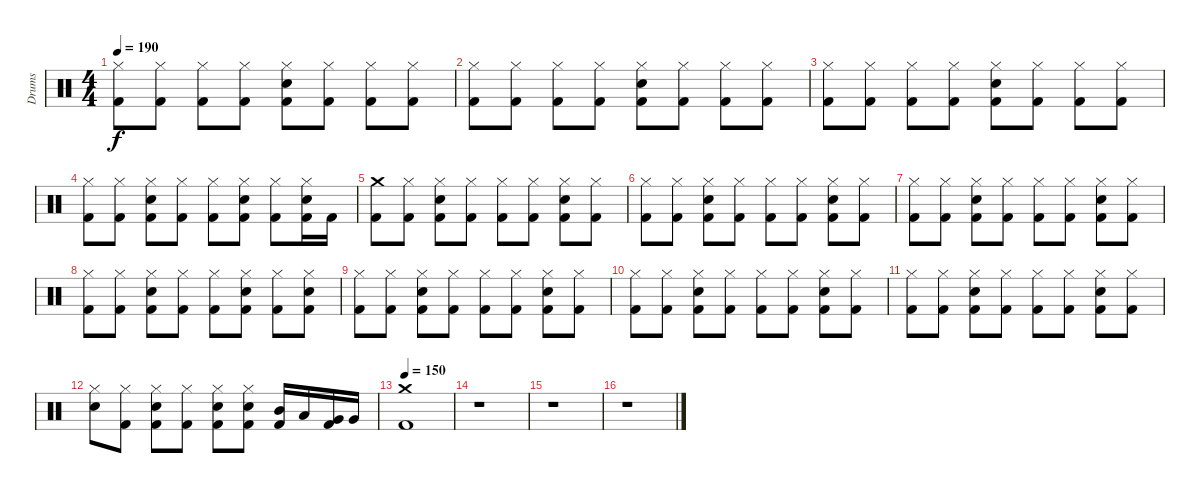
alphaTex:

\track ("Drums" "Drums") {instrument percussion}
\staff {score}
\articulation defaults
\ts (4 4)
\tempo 190
\clef neutral
\ks c
("Hi-Hat (closed)" "Kick (hit) 2").8{dy f} ("Hi-Hat (closed)" "Kick (hit) 2").8 ("Hi-Hat (closed)" "Kick (hit) 2").8 ("Hi-Hat (closed)" "Kick (hit) 2").8 ("Kick (hit) 2" "Hi-Hat (closed)" "Snare (hit) 2").8 ("Hi-Hat (closed)" "Kick (hit) 2").8 ("Hi-Hat (closed)" "Kick (hit) 2").8 ("Hi-Hat (closed)" "Kick (hit) 2").8 |
("Hi-Hat (closed)" "Kick (hit) 2").8 ("Hi-Hat (closed)" "Kick (hit) 2").8 ("Hi-Hat (closed)" "Kick (hit) 2").8 ("Hi-Hat (closed)" "Kick (hit) 2").8 ("Kick (hit) 2" "Hi-Hat (closed)" "Snare (hit) 2").8 ("Hi-Hat (closed)" "Kick (hit) 2").8 ("Hi-Hat (closed)" "Kick (hit) 2").8 ("Hi-Hat (closed)" "Kick (hit) 2").8 |
("Hi-Hat (closed)" "Kick (hit) 2").8 ("Hi-Hat (closed)" "Kick (hit) 2").8 ("Hi-Hat (closed)" "Kick (hit) 2").8 ("Hi-Hat (closed)" "Kick (hit) 2").8 ("Kick (hit) 2" "Hi-Hat (closed)" "Snare (hit) 2").8 ("Hi-Hat (closed)" "Kick (hit) 2").8 ("Hi-Hat (closed)" "Kick (hit) 2").8 ("Hi-Hat (closed)" "Kick (hit) 2").8 |
("Hi-Hat (closed)" "Kick (hit) 2").8 ("Hi-Hat (closed)" "Kick (hit) 2").8 ("Kick (hit) 2" "Hi-Hat (closed)" "Snare (hit) 2").8 ("Hi-Hat (closed)" "Kick (hit) 2").8 ("Hi-Hat (closed)" "Kick (hit) 2").8 ("Kick (hit) 2" "Hi-Hat (closed)" "Snare (hit) 2").8 ("Hi-Hat (closed)" "Kick (hit) 2").8 ("Kick (hit) 2" "Hi-Hat (closed)" "Snare (hit) 2").16 "Kick (hit) 2".16 |
("Crash medium (hit)" "Kick (hit) 2").8 ("Hi-Hat (closed)" "Kick (hit) 2").8 ("Kick (hit) 2" "Hi-Hat (closed)" "Snare (hit) 2").8 ("Hi-Hat (closed)" "Kick (hit) 2").8 ("Hi-Hat (closed)" "Kick (hit) 2").8 ("Hi-Hat (closed)" "Kick (hit) 2").8 ("Kick (hit) 2" "Hi-Hat (closed)" "Snare (hit) 2").8 ("Hi-Hat (closed)" "Kick (hit) 2").8 |
("Hi-Hat (closed)" "Kick (hit) 2").8 ("Hi-Hat (closed)" "Kick (hit) 2").8 ("Kick (hit) 2" "Hi-Hat (closed)" "Snare (hit) 2").8 ("Hi-Hat (closed)" "Kick (hit) 2").8 ("Hi-Hat (closed)" "Kick (hit) 2").8 ("Hi-Hat (closed)" "Kick (hit) 2").8 ("Kick (hit) 2" "Hi-Hat (closed)" "Snare (hit) 2").8 ("Hi-Hat (closed)" "Kick (hit) 2").8 |
("Hi-Hat (closed)" "Kick (hit) 2").8 ("Hi-Hat (closed)" "Kick (hit) 2").8 ("Kick (hit) 2" "Hi-Hat (closed)" "Snare (hit) 2").8 ("Hi-Hat (closed)" "Kick (hit) 2").8 ("Hi-Hat (closed)" "Kick (hit) 2").8 ("Hi-Hat (closed)" "Kick (hit) 2").8 ("Kick (hit) 2" "Hi-Hat (closed)" "Snare (hit) 2").8 ("Hi-Hat (closed)" "Kick (hit) 2").8 |
("Hi-Hat (closed)" "Kick (hit) 2").8 ("Hi-Hat (closed)" "Kick (hit) 2").8 ("Kick (hit) 2" "Hi-Hat (closed)" "Snare (hit) 2").8 ("Hi-Hat (closed)" "Kick (hit) 2").8 ("Hi-Hat (closed)" "Kick (hit) 2").8 ("Kick (hit) 2" "Hi-Hat (closed)" "Snare (hit) 2").8 ("Hi-Hat (closed)" "Kick (hit) 2").8 ("Kick (hit) 2" "Hi-Hat (closed)" "Snare (hit) 2").8 |
("Hi-Hat (closed)" "Kick (hit) 2").8 ("Hi-Hat (closed)" "Kick (hit) 2").8 ("Kick (hit) 2" "Hi-Hat (closed)" "Snare (hit) 2").8 ("Hi-Hat (closed)" "Kick (hit) 2").8 ("Hi-Hat (closed)" "Kick (hit) 2").8 ("Hi-Hat (closed)" "Kick (hit) 2").8 ("Kick (hit) 2" "Hi-Hat (closed)" "Snare (hit) 2").8 ("Hi-Hat (closed)" "Kick (hit) 2").8 |
("Hi-Hat (closed)" "Kick (hit) 2").8 ("Hi-Hat (closed)" "Kick (hit) 2").8 ("Kick (hit) 2" "Hi-Hat (closed)" "Snare (hit) 2").8 ("Hi-Hat (closed)" "Kick (hit) 2").8 ("Hi-Hat (closed)" "Kick (hit) 2").8 ("Hi-Hat (closed)" "Kick (hit) 2").8 ("Kick (hit) 2" "Hi-Hat (closed)" "Snare (hit) 2").8 ("Hi-Hat (closed)" "Kick (hit) 2").8 |
("Hi-Hat (closed)" "Kick (hit) 2").8 ("Hi-Hat (closed)" "Kick (hit) 2").8 ("Kick (hit) 2" "Hi-Hat (closed)" "Snare (hit) 2").8 ("Hi-Hat (closed)" "Kick (hit) 2").8 ("Hi-Hat (closed)" "Kick (hit) 2").8 ("Hi-Hat (closed)" "Kick (hit) 2").8 ("Kick (hit) 2" "Hi-Hat (closed)" "Snare (hit) 2").8 ("Hi-Hat (closed)" "Kick (hit) 2").8 |
("Hi-Hat (closed)" "Snare (hit) 2").8 ("Hi-Hat (closed)" "Kick (hit) 2").8 ("Kick (hit) 2" "Hi-Hat (closed)" "Snare (hit) 2").8 ("Hi-Hat (closed)" "Kick (hit) 2").8 ("Kick (hit) 2" "Hi-Hat (closed)" "Snare (hit) 2").8 ("Kick (hit) 2" "Hi-Hat (closed)" "Snare (hit) 2").8 ("Kick (hit) 2" "Mid Tom (hit)").16 "Low Tom (hit)".16 ("Kick (hit) 2" "Very Low Tom (hit)").16 "Very Low Tom (hit)".16 |
\tempo 150
("Crash medium (hit)" "Kick (hit) 2").1 |
r.1 |
r.1 |
r.1
